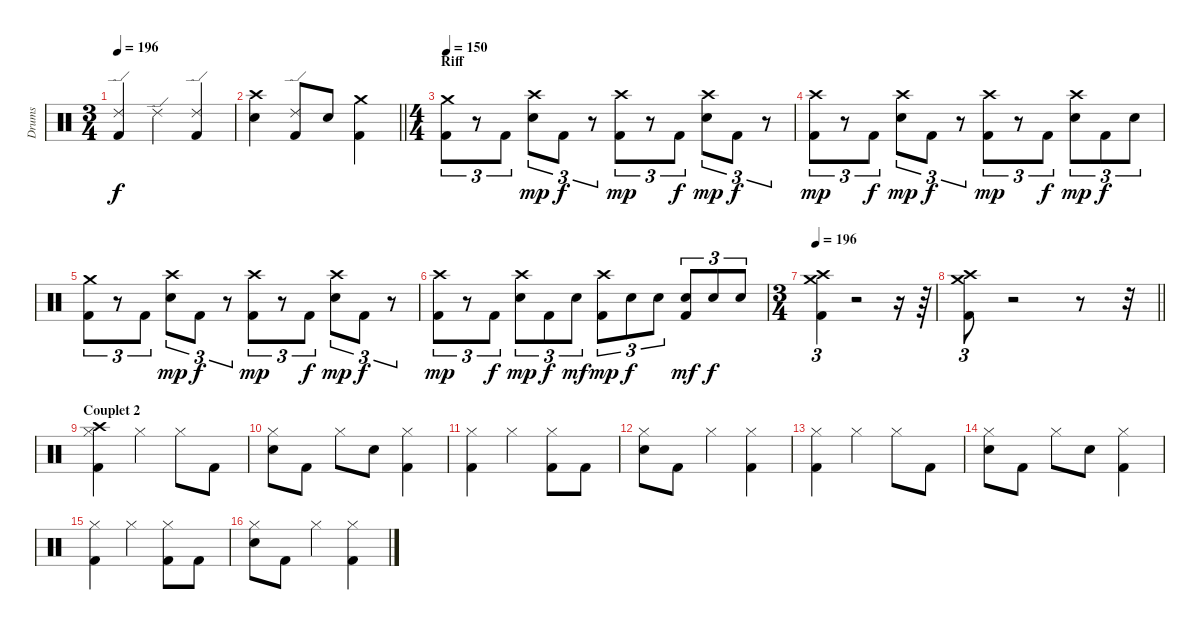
\track ("Drums" "Drums") {instrument percussion}
\staff {score}
\articulation defaults
\ts (3 4)
\tempo 196
\clef neutral
\ks c
("Ride (edge) 2" "Kick (hit) 2").4{dy f} "Ride (edge) 2".4 ("Ride (edge) 2" "Kick (hit) 2").4 |
\barLineRight lightlight
("Crash high (hit)" "Electric Snare (hit)").4 ("Ride (edge) 2" "Kick (hit) 2").8 "Electric Snare (hit)".8 ("Crash medium (hit)" "Kick (hit) 2").4 |
\ts (4 4)
\section ("" "Riff")
\tempo 150
("Crash medium (hit)" "Kick (hit) 2").8{tu (3 2)} r.8{tu (3 2)} "Kick (hit) 2".8{tu (3 2)} ("Crash high (hit)" "Electric Snare (hit)").8{tu (3 2) dy mp} "Kick (hit) 2".8{tu (3 2) dy f} r.8{tu (3 2)} ("Crash high (hit)" "Kick (hit) 2").8{tu (3 2) dy mp} r.8{tu (3 2)} "Kick (hit) 2".8{tu (3 2) dy f} ("Crash high (hit)" "Electric Snare (hit)").8{tu (3 2) dy mp} "Kick (hit) 2".8{tu (3 2) dy f} r.8{tu (3 2)} |
("Crash high (hit)" "Kick (hit) 2").8{tu (3 2) dy mp} r.8{tu (3 2)} "Kick (hit) 2".8{tu (3 2) dy f} ("Crash high (hit)" "Electric Snare (hit)").8{tu (3 2) dy mp} "Kick (hit) 2".8{tu (3 2) dy f} r.8{tu (3 2)} ("Crash high (hit)" "Kick (hit) 2").8{tu (3 2) dy mp} r.8{tu (3 2)} "Kick (hit) 2".8{tu (3 2) dy f} ("Crash high (hit)" "Electric Snare (hit)").8{tu (3 2) dy mp} "Kick (hit) 2".8{tu (3 2) dy f} "Electric Snare (hit)".8{tu (3 2)} |
("Crash medium (hit)" "Kick (hit) 2").8{tu (3 2)} r.8{tu (3 2)} "Kick (hit) 2".8{tu (3 2)} ("Crash high (hit)" "Electric Snare (hit)").8{tu (3 2) dy mp} "Kick (hit) 2".8{tu (3 2) dy f} r.8{tu (3 2)} ("Crash high (hit)" "Kick (hit) 2").8{tu (3 2) dy mp} r.8{tu (3 2)} "Kick (hit) 2".8{tu (3 2) dy f} ("Crash high (hit)" "Electric Snare (hit)").8{tu (3 2) dy mp} "Kick (hit) 2".8{tu (3 2) dy f} r.8{tu (3 2)} |
("Crash high (hit)" "Kick (hit) 2").8{tu (3 2) dy mp} r.8{tu (3 2)} "Kick (hit) 2".8{tu (3 2) dy f} ("Crash high (hit)" "Electric Snare (hit)").8{tu (3 2) dy mp} "Kick (hit) 2".8{tu (3 2) dy f} "Electric Snare (hit)".8{tu (3 2) dy mf} ("Crash high (hit)" "Kick (hit) 2").8{tu (3 2) dy mp} "Electric Snare (hit)".8{tu (3 2) dy f} "Electric Snare (hit)".8{tu (3 2)} ("Kick (hit) 2" "Electric Snare (hit)").8{tu (3 2) dy mf} "Electric Snare (hit)".8{tu (3 2) dy f} "Electric Snare (hit)".8{tu (3 2)} |
\ts (3 4)
\tempo 196
("Crash medium (hit)" "Crash high (hit)" "Kick (hit) 2").4{tu (3 2)} r.2 r.16 r.64 |
\barLineRight lightlight
("Crash medium (hit)" "Crash high (hit)" "Kick (hit) 2").8{tu (3 2)} r.2 r.8 r.32 |
\section ("" "Couplet 2")
("Crash high (hit)" "Hi-Hat (closed)" "Kick (hit) 2").4 "Hi-Hat (closed)".4 "Hi-Hat (closed)".8 "Kick (hit) 2".8 |
("Hi-Hat (closed)" "Electric Snare (hit)").8 "Kick (hit) 2".8 "Hi-Hat (closed)".8 "Electric Snare (hit)".8 ("Hi-Hat (closed)" "Kick (hit) 2").4 |
("Hi-Hat (closed)" "Kick (hit) 2").4 "Hi-Hat (closed)".4 ("Hi-Hat (closed)" "Kick (hit) 2").8 "Kick (hit) 2".8 |
("Hi-Hat (closed)" "Electric Snare (hit)").8 "Kick (hit) 2".8 "Hi-Hat (closed)".4 ("Hi-Hat (closed)" "Kick (hit) 2").4 |
("Hi-Hat (closed)" "Kick (hit) 2").4 "Hi-Hat (closed)".4 "Hi-Hat (closed)".8 "Kick (hit) 2".8 |
("Hi-Hat (closed)" "Electric Snare (hit)").8 "Kick (hit) 2".8 "Hi-Hat (closed)".8 "Electric Snare (hit)".8 ("Hi-Hat (closed)" "Kick (hit) 2").4 |
("Hi-Hat (closed)" "Kick (hit) 2").4 "Hi-Hat (closed)".4 ("Hi-Hat (closed)" "Kick (hit) 2").8 "Kick (hit) 2".8 |
("Hi-Hat (closed)" "Electric Snare (hit)").8 "Kick (hit) 2".8 "Hi-Hat (closed)".4 ("Hi-Hat (closed)" "Kick (hit) 2").4
